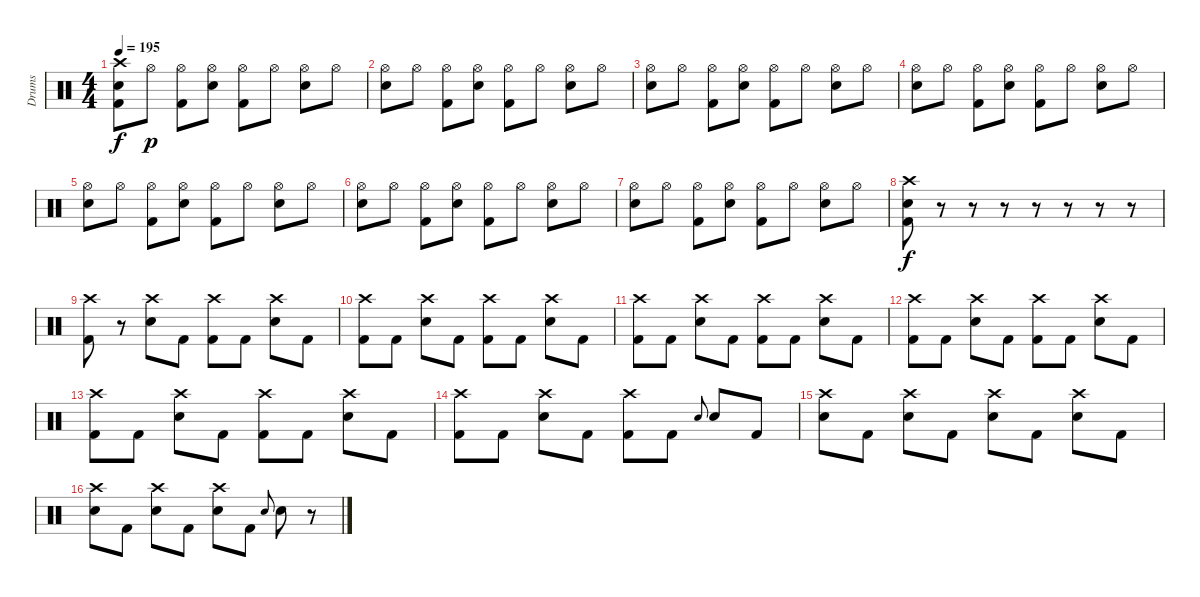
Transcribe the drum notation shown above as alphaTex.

\track ("Drums" "Drums") {instrument percussion}
\staff {score}
\articulation defaults
\ts (4 4)
\tempo 195
\clef neutral
\ks c
("Crash high (hit)" "Electric Snare (hit)" "Kick (hit) 2").8{dy f} "Hi-Hat (open)".8{dy p} ("Hi-Hat (open)" "Kick (hit) 2").8 ("Hi-Hat (open)" "Electric Snare (hit)").8 ("Hi-Hat (open)" "Kick (hit) 2").8 "Hi-Hat (open)".8 ("Hi-Hat (open)" "Electric Snare (hit)").8 "Hi-Hat (open)".8 |
("Hi-Hat (open)" "Electric Snare (hit)").8 "Hi-Hat (open)".8 ("Hi-Hat (open)" "Kick (hit) 2").8 ("Hi-Hat (open)" "Electric Snare (hit)").8 ("Hi-Hat (open)" "Kick (hit) 2").8 "Hi-Hat (open)".8 ("Hi-Hat (open)" "Electric Snare (hit)").8 "Hi-Hat (open)".8 |
("Hi-Hat (open)" "Electric Snare (hit)").8 "Hi-Hat (open)".8 ("Hi-Hat (open)" "Kick (hit) 2").8 ("Hi-Hat (open)" "Electric Snare (hit)").8 ("Hi-Hat (open)" "Kick (hit) 2").8 "Hi-Hat (open)".8 ("Hi-Hat (open)" "Electric Snare (hit)").8 "Hi-Hat (open)".8 |
("Hi-Hat (open)" "Electric Snare (hit)").8 "Hi-Hat (open)".8 ("Hi-Hat (open)" "Kick (hit) 2").8 ("Hi-Hat (open)" "Electric Snare (hit)").8 ("Hi-Hat (open)" "Kick (hit) 2").8 "Hi-Hat (open)".8 ("Hi-Hat (open)" "Electric Snare (hit)").8 "Hi-Hat (open)".8 |
("Hi-Hat (open)" "Electric Snare (hit)").8 "Hi-Hat (open)".8 ("Hi-Hat (open)" "Kick (hit) 2").8 ("Hi-Hat (open)" "Electric Snare (hit)").8 ("Hi-Hat (open)" "Kick (hit) 2").8 "Hi-Hat (open)".8 ("Hi-Hat (open)" "Electric Snare (hit)").8 "Hi-Hat (open)".8 |
("Hi-Hat (open)" "Electric Snare (hit)").8 "Hi-Hat (open)".8 ("Hi-Hat (open)" "Kick (hit) 2").8 ("Hi-Hat (open)" "Electric Snare (hit)").8 ("Hi-Hat (open)" "Kick (hit) 2").8 "Hi-Hat (open)".8 ("Hi-Hat (open)" "Electric Snare (hit)").8 "Hi-Hat (open)".8 |
("Hi-Hat (open)" "Electric Snare (hit)").8 "Hi-Hat (open)".8 ("Hi-Hat (open)" "Kick (hit) 2").8 ("Hi-Hat (open)" "Electric Snare (hit)").8 ("Hi-Hat (open)" "Kick (hit) 2").8 "Hi-Hat (open)".8 ("Hi-Hat (open)" "Electric Snare (hit)").8 "Hi-Hat (open)".8 |
("Crash high (hit)" "Electric Snare (hit)" "Kick (hit) 2").8{dy f} r.8 r.8 r.8 r.8 r.8 r.8 r.8 |
("Crash high (hit)" "Kick (hit) 2").8 r.8 ("Crash high (hit)" "Electric Snare (hit)").8 "Kick (hit) 2".8 ("Crash high (hit)" "Kick (hit) 2").8 "Kick (hit) 2".8 ("Crash high (hit)" "Electric Snare (hit)").8 "Kick (hit) 2".8 |
("Crash high (hit)" "Kick (hit) 2").8 "Kick (hit) 2".8 ("Crash high (hit)" "Electric Snare (hit)").8 "Kick (hit) 2".8 ("Crash high (hit)" "Kick (hit) 2").8 "Kick (hit) 2".8 ("Crash high (hit)" "Electric Snare (hit)").8 "Kick (hit) 2".8 |
("Crash high (hit)" "Kick (hit) 2").8 "Kick (hit) 2".8 ("Crash high (hit)" "Electric Snare (hit)").8 "Kick (hit) 2".8 ("Crash high (hit)" "Kick (hit) 2").8 "Kick (hit) 2".8 ("Crash high (hit)" "Electric Snare (hit)").8 "Kick (hit) 2".8 |
("Crash high (hit)" "Kick (hit) 2").8 "Kick (hit) 2".8 ("Crash high (hit)" "Electric Snare (hit)").8 "Kick (hit) 2".8 ("Crash high (hit)" "Kick (hit) 2").8 "Kick (hit) 2".8 ("Crash high (hit)" "Electric Snare (hit)").8 "Kick (hit) 2".8 |
("Crash high (hit)" "Kick (hit) 2").8 "Kick (hit) 2".8 ("Crash high (hit)" "Electric Snare (hit)").8 "Kick (hit) 2".8 ("Crash high (hit)" "Kick (hit) 2").8 "Kick (hit) 2".8 ("Crash high (hit)" "Electric Snare (hit)").8 "Kick (hit) 2".8 |
("Crash high (hit)" "Kick (hit) 2").8 "Kick (hit) 2".8 ("Crash high (hit)" "Electric Snare (hit)").8 "Kick (hit) 2".8 ("Crash high (hit)" "Kick (hit) 2").8 "Kick (hit) 2".8 "Electric Snare (hit)".8{gr onbeat} "Electric Snare (hit)".8 "Kick (hit) 2".8 |
("Crash high (hit)" "Electric Snare (hit)").8 "Kick (hit) 2".8 ("Crash high (hit)" "Electric Snare (hit)").8 "Kick (hit) 2".8 ("Crash high (hit)" "Electric Snare (hit)").8 "Kick (hit) 2".8 ("Crash high (hit)" "Electric Snare (hit)").8 "Kick (hit) 2".8 |
("Crash high (hit)" "Electric Snare (hit)").8 "Kick (hit) 2".8 ("Crash high (hit)" "Electric Snare (hit)").8 "Kick (hit) 2".8 ("Crash high (hit)" "Electric Snare (hit)").8 "Kick (hit) 2".8 "Electric Snare (hit)".8{gr onbeat} "Electric Snare (hit)".8 r.8
